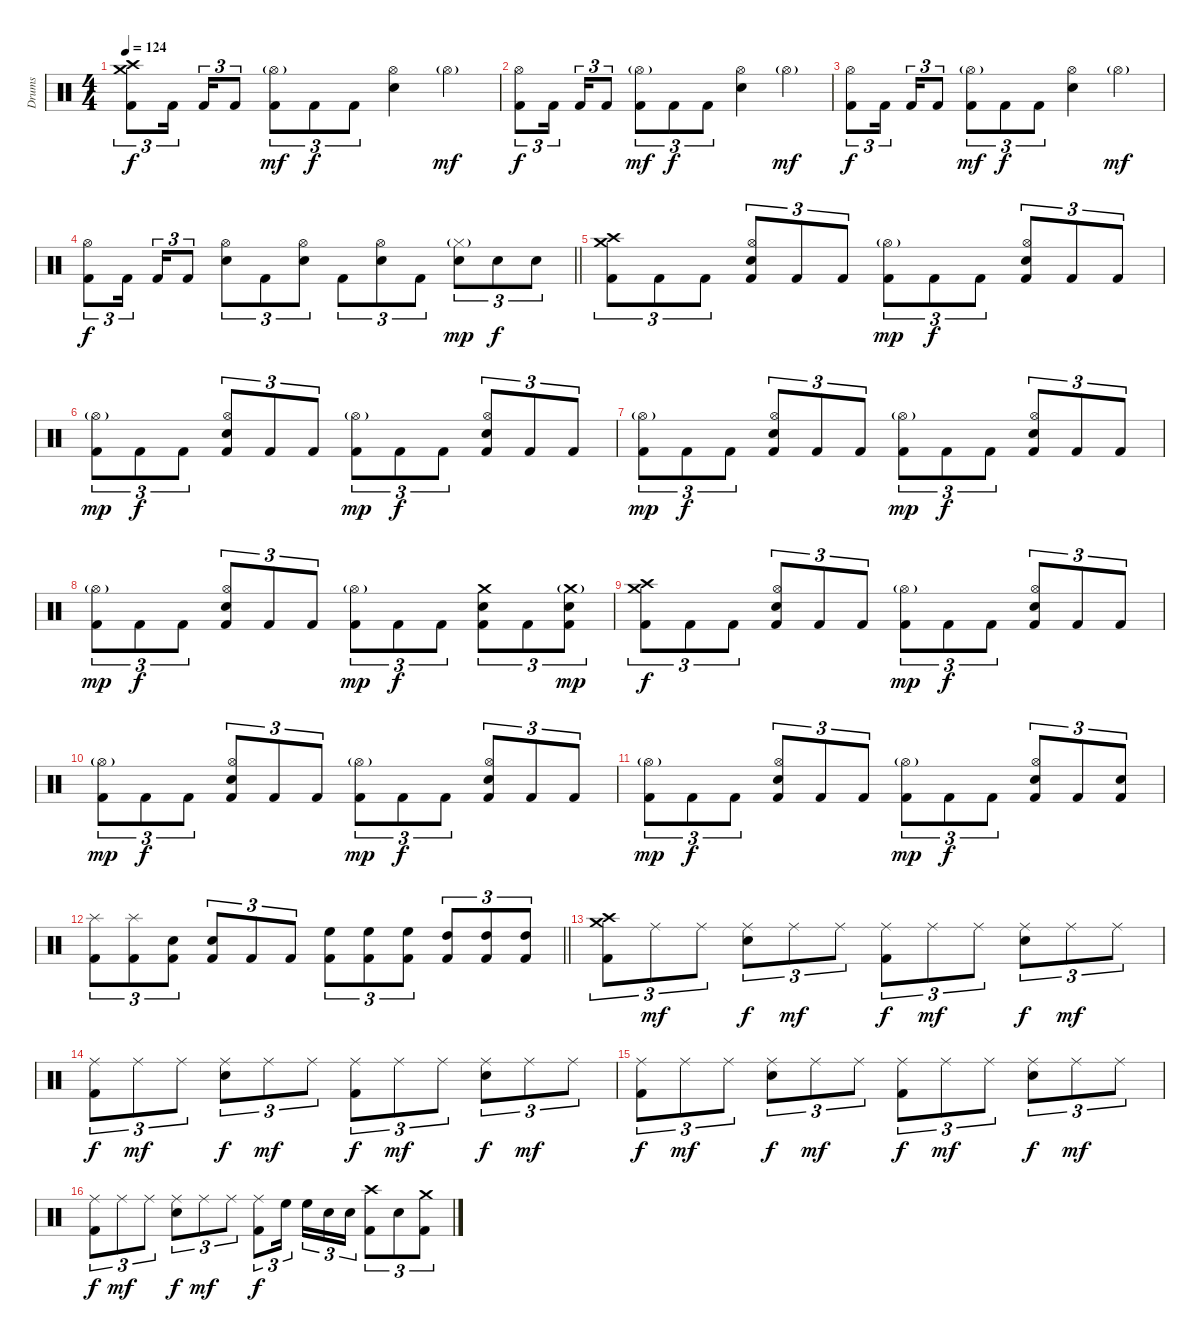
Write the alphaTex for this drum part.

\track ("Drums" "Drums") {instrument percussion}
\staff {score}
\articulation defaults
\ts (4 4)
\tempo 124
\clef neutral
\ks c
("Crash high (hit)" "Crash medium (hit)" "Kick (hit) 2").8{tu (3 2) dy f} "Kick (hit) 2".16{tu (3 2)} "Kick (hit) 2".16{tu (3 2)} "Kick (hit) 2".8{tu (3 2)} ("Hi-Hat (open)"{g} "Kick (hit) 2").8{tu (3 2) dy mf} "Kick (hit) 2".8{tu (3 2) dy f} "Kick (hit) 2".8{tu (3 2)} ("Hi-Hat (open)" "Electric Snare (hit)").4 "Hi-Hat (open)"{g}.4{dy mf} |
("Hi-Hat (open)" "Kick (hit) 2").8{tu (3 2) dy f} "Kick (hit) 2".16{tu (3 2)} "Kick (hit) 2".16{tu (3 2)} "Kick (hit) 2".8{tu (3 2)} ("Hi-Hat (open)"{g} "Kick (hit) 2").8{tu (3 2) dy mf} "Kick (hit) 2".8{tu (3 2) dy f} "Kick (hit) 2".8{tu (3 2)} ("Hi-Hat (open)" "Electric Snare (hit)").4 "Hi-Hat (open)"{g}.4{dy mf} |
("Hi-Hat (open)" "Kick (hit) 2").8{tu (3 2) dy f} "Kick (hit) 2".16{tu (3 2)} "Kick (hit) 2".16{tu (3 2)} "Kick (hit) 2".8{tu (3 2)} ("Hi-Hat (open)"{g} "Kick (hit) 2").8{tu (3 2) dy mf} "Kick (hit) 2".8{tu (3 2) dy f} "Kick (hit) 2".8{tu (3 2)} ("Hi-Hat (open)" "Electric Snare (hit)").4 "Hi-Hat (open)"{g}.4{dy mf} |
\barLineRight lightlight
("Hi-Hat (open)" "Kick (hit) 2").8{tu (3 2) dy f} "Kick (hit) 2".16{tu (3 2)} "Kick (hit) 2".16{tu (3 2)} "Kick (hit) 2".8{tu (3 2)} ("Hi-Hat (open)" "Electric Snare (hit)").8{tu (3 2)} "Kick (hit) 2".8{tu (3 2)} ("Hi-Hat (open)" "Electric Snare (hit)").8{tu (3 2)} "Kick (hit) 2".8{tu (3 2)} ("Hi-Hat (open)" "Electric Snare (hit)").8{tu (3 2)} "Kick (hit) 2".8{tu (3 2)} ("Electric Snare (hit)" "Hi-Hat (closed)"{g}).8{tu (3 2) dy mp} "Electric Snare (hit)".8{tu (3 2) dy f} "Electric Snare (hit)".8{tu (3 2)} |
("Crash high (hit)" "Crash medium (hit)" "Kick (hit) 2").8{tu (3 2)} "Kick (hit) 2".8{tu (3 2)} "Kick (hit) 2".8{tu (3 2)} ("Hi-Hat (open)" "Electric Snare (hit)" "Kick (hit) 2").8{tu (3 2)} "Kick (hit) 2".8{tu (3 2)} "Kick (hit) 2".8{tu (3 2)} ("Hi-Hat (open)"{g} "Kick (hit) 2").8{tu (3 2) dy mp} "Kick (hit) 2".8{tu (3 2) dy f} "Kick (hit) 2".8{tu (3 2)} ("Hi-Hat (open)" "Electric Snare (hit)" "Kick (hit) 2").8{tu (3 2)} "Kick (hit) 2".8{tu (3 2)} "Kick (hit) 2".8{tu (3 2)} |
("Hi-Hat (open)"{g} "Kick (hit) 2").8{tu (3 2) dy mp} "Kick (hit) 2".8{tu (3 2) dy f} "Kick (hit) 2".8{tu (3 2)} ("Hi-Hat (open)" "Electric Snare (hit)" "Kick (hit) 2").8{tu (3 2)} "Kick (hit) 2".8{tu (3 2)} "Kick (hit) 2".8{tu (3 2)} ("Hi-Hat (open)"{g} "Kick (hit) 2").8{tu (3 2) dy mp} "Kick (hit) 2".8{tu (3 2) dy f} "Kick (hit) 2".8{tu (3 2)} ("Hi-Hat (open)" "Electric Snare (hit)" "Kick (hit) 2").8{tu (3 2)} "Kick (hit) 2".8{tu (3 2)} "Kick (hit) 2".8{tu (3 2)} |
("Hi-Hat (open)"{g} "Kick (hit) 2").8{tu (3 2) dy mp} "Kick (hit) 2".8{tu (3 2) dy f} "Kick (hit) 2".8{tu (3 2)} ("Hi-Hat (open)" "Electric Snare (hit)" "Kick (hit) 2").8{tu (3 2)} "Kick (hit) 2".8{tu (3 2)} "Kick (hit) 2".8{tu (3 2)} ("Hi-Hat (open)"{g} "Kick (hit) 2").8{tu (3 2) dy mp} "Kick (hit) 2".8{tu (3 2) dy f} "Kick (hit) 2".8{tu (3 2)} ("Hi-Hat (open)" "Electric Snare (hit)" "Kick (hit) 2").8{tu (3 2)} "Kick (hit) 2".8{tu (3 2)} "Kick (hit) 2".8{tu (3 2)} |
("Hi-Hat (open)"{g} "Kick (hit) 2").8{tu (3 2) dy mp} "Kick (hit) 2".8{tu (3 2) dy f} "Kick (hit) 2".8{tu (3 2)} ("Hi-Hat (open)" "Electric Snare (hit)" "Kick (hit) 2").8{tu (3 2)} "Kick (hit) 2".8{tu (3 2)} "Kick (hit) 2".8{tu (3 2)} ("Hi-Hat (open)"{g} "Kick (hit) 2").8{tu (3 2) dy mp} "Kick (hit) 2".8{tu (3 2) dy f} "Kick (hit) 2".8{tu (3 2)} ("Crash medium (hit)" "Electric Snare (hit)" "Kick (hit) 2").8{tu (3 2)} "Kick (hit) 2".8{tu (3 2)} ("Crash medium (hit)"{g} "Electric Snare (hit)" "Kick (hit) 2").8{tu (3 2) dy mp} |
("Crash high (hit)" "Crash medium (hit)" "Kick (hit) 2").8{tu (3 2) dy f} "Kick (hit) 2".8{tu (3 2)} "Kick (hit) 2".8{tu (3 2)} ("Hi-Hat (open)" "Electric Snare (hit)" "Kick (hit) 2").8{tu (3 2)} "Kick (hit) 2".8{tu (3 2)} "Kick (hit) 2".8{tu (3 2)} ("Hi-Hat (open)"{g} "Kick (hit) 2").8{tu (3 2) dy mp} "Kick (hit) 2".8{tu (3 2) dy f} "Kick (hit) 2".8{tu (3 2)} ("Hi-Hat (open)" "Electric Snare (hit)" "Kick (hit) 2").8{tu (3 2)} "Kick (hit) 2".8{tu (3 2)} "Kick (hit) 2".8{tu (3 2)} |
("Hi-Hat (open)"{g} "Kick (hit) 2").8{tu (3 2) dy mp} "Kick (hit) 2".8{tu (3 2) dy f} "Kick (hit) 2".8{tu (3 2)} ("Hi-Hat (open)" "Electric Snare (hit)" "Kick (hit) 2").8{tu (3 2)} "Kick (hit) 2".8{tu (3 2)} "Kick (hit) 2".8{tu (3 2)} ("Hi-Hat (open)"{g} "Kick (hit) 2").8{tu (3 2) dy mp} "Kick (hit) 2".8{tu (3 2) dy f} "Kick (hit) 2".8{tu (3 2)} ("Hi-Hat (open)" "Electric Snare (hit)" "Kick (hit) 2").8{tu (3 2)} "Kick (hit) 2".8{tu (3 2)} "Kick (hit) 2".8{tu (3 2)} |
("Hi-Hat (open)"{g} "Kick (hit) 2").8{tu (3 2) dy mp} "Kick (hit) 2".8{tu (3 2) dy f} "Kick (hit) 2".8{tu (3 2)} ("Hi-Hat (open)" "Electric Snare (hit)" "Kick (hit) 2").8{tu (3 2)} "Kick (hit) 2".8{tu (3 2)} "Kick (hit) 2".8{tu (3 2)} ("Hi-Hat (open)"{g} "Kick (hit) 2").8{tu (3 2) dy mp} "Kick (hit) 2".8{tu (3 2) dy f} "Kick (hit) 2".8{tu (3 2)} ("Hi-Hat (open)" "Electric Snare (hit)" "Kick (hit) 2").8{tu (3 2)} "Kick (hit) 2".8{tu (3 2)} ("Electric Snare (hit)" "Kick (hit) 2").8{tu (3 2)} |
\barLineRight lightlight
("Splash (hit)" "Kick (hit) 2").8{tu (3 2)} ("Splash (hit)" "Kick (hit) 2").8{tu (3 2)} ("Electric Snare (hit)" "Kick (hit) 2").8{tu (3 2)} ("Electric Snare (hit)" "Kick (hit) 2").8{tu (3 2)} "Kick (hit) 2".8{tu (3 2)} "Kick (hit) 2".8{tu (3 2)} ("High Floor Tom (hit)" "Kick (hit) 2").8{tu (3 2)} ("High Floor Tom (hit)" "Kick (hit) 2").8{tu (3 2)} ("High Floor Tom (hit)" "Kick (hit) 2").8{tu (3 2)} ("High Tom (hit)" "Kick (hit) 2").8{tu (3 2)} ("High Tom (hit)" "Kick (hit) 2").8{tu (3 2)} ("High Tom (hit)" "Kick (hit) 2").8{tu (3 2)} |
("Crash high (hit)" "Crash medium (hit)" "Kick (hit) 2").8{tu (3 2)} "Ride (middle)".8{tu (3 2) dy mf} "Ride (middle)".8{tu (3 2)} ("Ride (middle)" "Electric Snare (hit)").8{tu (3 2) dy f} "Ride (middle)".8{tu (3 2) dy mf} "Ride (middle)".8{tu (3 2)} ("Ride (middle)" "Kick (hit) 2").8{tu (3 2) dy f} "Ride (middle)".8{tu (3 2) dy mf} "Ride (middle)".8{tu (3 2)} ("Ride (middle)" "Electric Snare (hit)").8{tu (3 2) dy f} "Ride (middle)".8{tu (3 2) dy mf} "Ride (middle)".8{tu (3 2)} |
("Ride (middle)" "Kick (hit) 2").8{tu (3 2) dy f} "Ride (middle)".8{tu (3 2) dy mf} "Ride (middle)".8{tu (3 2)} ("Ride (middle)" "Electric Snare (hit)").8{tu (3 2) dy f} "Ride (middle)".8{tu (3 2) dy mf} "Ride (middle)".8{tu (3 2)} ("Ride (middle)" "Kick (hit) 2").8{tu (3 2) dy f} "Ride (middle)".8{tu (3 2) dy mf} "Ride (middle)".8{tu (3 2)} ("Ride (middle)" "Electric Snare (hit)").8{tu (3 2) dy f} "Ride (middle)".8{tu (3 2) dy mf} "Ride (middle)".8{tu (3 2)} |
("Ride (middle)" "Kick (hit) 2").8{tu (3 2) dy f} "Ride (middle)".8{tu (3 2) dy mf} "Ride (middle)".8{tu (3 2)} ("Ride (middle)" "Electric Snare (hit)").8{tu (3 2) dy f} "Ride (middle)".8{tu (3 2) dy mf} "Ride (middle)".8{tu (3 2)} ("Ride (middle)" "Kick (hit) 2").8{tu (3 2) dy f} "Ride (middle)".8{tu (3 2) dy mf} "Ride (middle)".8{tu (3 2)} ("Ride (middle)" "Electric Snare (hit)").8{tu (3 2) dy f} "Ride (middle)".8{tu (3 2) dy mf} "Ride (middle)".8{tu (3 2)} |
("Ride (middle)" "Kick (hit) 2").8{tu (3 2) dy f} "Ride (middle)".8{tu (3 2) dy mf} "Ride (middle)".8{tu (3 2)} ("Ride (middle)" "Electric Snare (hit)").8{tu (3 2) dy f} "Ride (middle)".8{tu (3 2) dy mf} "Ride (middle)".8{tu (3 2)} ("Ride (middle)" "Kick (hit) 2").8{tu (3 2) dy f} "High Floor Tom (hit)".16{tu (3 2)} "High Floor Tom (hit)".16{tu (3 2)} "Electric Snare (hit)".16{tu (3 2)} "Electric Snare (hit)".16{tu (3 2)} ("Crash high (hit)" "Kick (hit) 2").8{tu (3 2)} "Electric Snare (hit)".8{tu (3 2)} ("Crash medium (hit)" "Kick (hit) 2").8{tu (3 2)}
